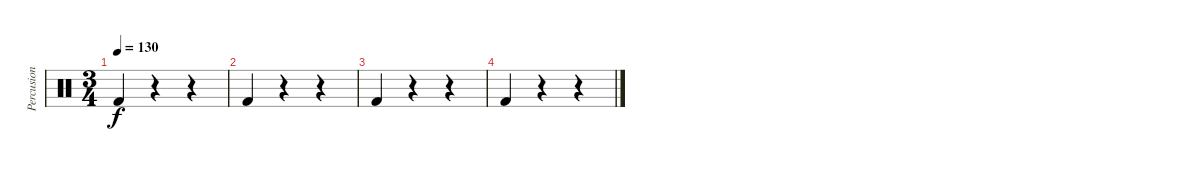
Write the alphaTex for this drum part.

\track ("Percusion" "Percusion") {instrument percussion}
\staff {score}
\articulation defaults
\ts (3 4)
\tempo 130
\clef neutral
\ks c "Kick (hit) 2".4{dy f}
r.4 r.4 |
"Kick (hit) 2".4 r.4 r.4 |
"Kick (hit) 2".4 r.4 r.4 |
"Kick (hit) 2".4 r.4 r.4
